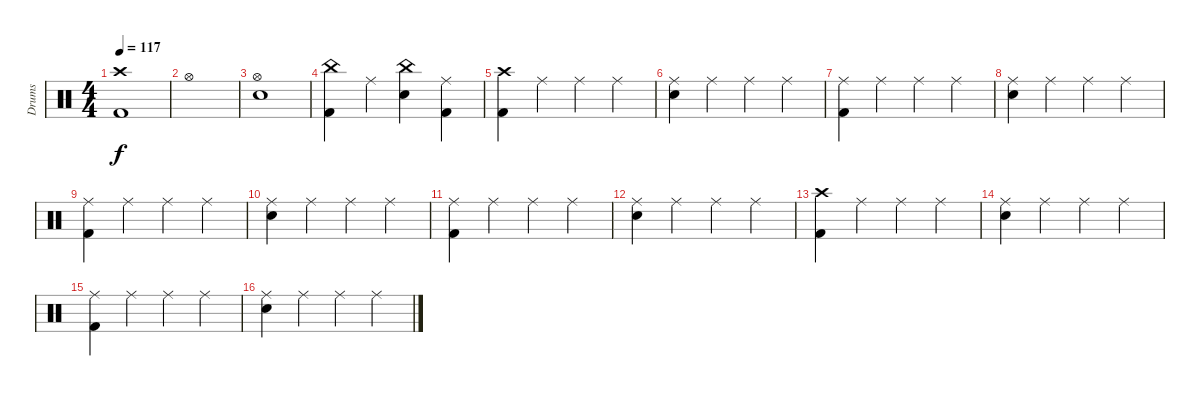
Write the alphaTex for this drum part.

\track ("Drums" "Drums") {instrument percussion}
\staff {score}
\articulation defaults
\ts (4 4)
\tempo 117
\clef neutral
\ks c
("Crash high (hit)" "Kick (hit) 2").1{dy f} |
"Hi-Hat (open)".1 |
("Hi-Hat (open)" "Snare (hit) 2").1 |
("China (hit)" "Kick (hit) 2").4 "Ride (middle)".4 ("China (hit)" "Snare (hit) 2").4 ("Ride (middle)" "Kick (hit) 2").4 |
("Crash high (hit)" "Kick (hit) 2").4 "Ride (middle)".4 "Ride (middle)".4 "Ride (middle)".4 |
("Ride (middle)" "Snare (hit) 2").4 "Ride (middle)".4 "Ride (middle)".4 "Ride (middle)".4 |
("Ride (middle)" "Kick (hit) 2").4 "Ride (middle)".4 "Ride (middle)".4 "Ride (middle)".4 |
("Ride (middle)" "Snare (hit) 2").4 "Ride (middle)".4 "Ride (middle)".4 "Ride (middle)".4 |
("Ride (middle)" "Kick (hit) 2").4 "Ride (middle)".4 "Ride (middle)".4 "Ride (middle)".4 |
("Ride (middle)" "Snare (hit) 2").4 "Ride (middle)".4 "Ride (middle)".4 "Ride (middle)".4 |
("Ride (middle)" "Kick (hit) 2").4 "Ride (middle)".4 "Ride (middle)".4 "Ride (middle)".4 |
("Ride (middle)" "Snare (hit) 2").4 "Ride (middle)".4 "Ride (middle)".4 "Ride (middle)".4 |
("Crash high (hit)" "Kick (hit) 2").4 "Ride (middle)".4 "Ride (middle)".4 "Ride (middle)".4 |
("Ride (middle)" "Snare (hit) 2").4 "Ride (middle)".4 "Ride (middle)".4 "Ride (middle)".4 |
("Ride (middle)" "Kick (hit) 2").4 "Ride (middle)".4 "Ride (middle)".4 "Ride (middle)".4 |
("Ride (middle)" "Snare (hit) 2").4 "Ride (middle)".4 "Ride (middle)".4 "Ride (middle)".4
